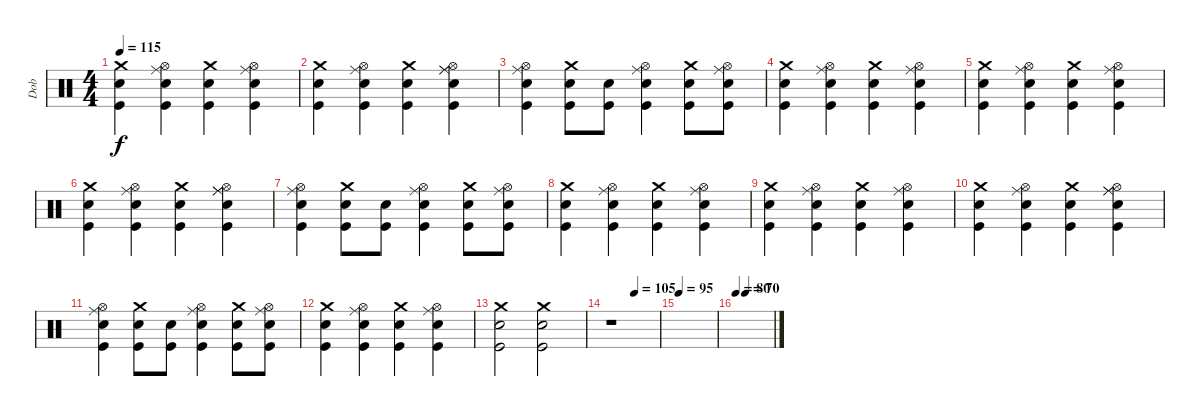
\track ("Dob" "Dob") {instrument percussion}
\staff {score}
\articulation defaults
\ts (4 4)
\tempo 115
\clef neutral
\ks c
("Crash medium (hit)" "Snare (hit) 2" "Kick (hit)").4{dy f} ("Hi-Hat (open)" "Ride (middle)" "Snare (hit) 2" "Kick (hit)").4 ("Crash medium (hit)" "Snare (hit) 2" "Kick (hit)").4 ("Hi-Hat (open)" "Ride (middle)" "Snare (hit) 2" "Kick (hit)").4 |
("Crash medium (hit)" "Snare (hit) 2" "Kick (hit)").4 ("Hi-Hat (open)" "Ride (middle)" "Snare (hit) 2" "Kick (hit)").4 ("Crash medium (hit)" "Snare (hit) 2" "Kick (hit)").4 ("Ride (middle)" "Hi-Hat (open)" "Ride (middle)" "Snare (hit) 2" "Kick (hit)").4 |
("Hi-Hat (open)" "Ride (middle)" "Snare (hit) 2" "Kick (hit)").4 ("Crash medium (hit)" "Snare (hit) 2" "Kick (hit)").8 ("Snare (hit) 2" "Kick (hit)").8 ("Hi-Hat (open)" "Ride (middle)" "Snare (hit) 2" "Kick (hit)").4 ("Crash medium (hit)" "Snare (hit) 2" "Kick (hit)").8 ("Hi-Hat (open)" "Ride (middle)" "Snare (hit) 2" "Kick (hit)").8 |
("Crash medium (hit)" "Snare (hit) 2" "Kick (hit)").4 ("Hi-Hat (open)" "Ride (middle)" "Snare (hit) 2" "Kick (hit)").4 ("Crash medium (hit)" "Snare (hit) 2" "Kick (hit)").4 ("Hi-Hat (open)" "Ride (middle)" "Snare (hit) 2" "Kick (hit)").4 |
("Crash medium (hit)" "Snare (hit) 2" "Kick (hit)").4 ("Hi-Hat (open)" "Ride (middle)" "Snare (hit) 2" "Kick (hit)").4 ("Crash medium (hit)" "Snare (hit) 2" "Kick (hit)").4 ("Hi-Hat (open)" "Ride (middle)" "Snare (hit) 2" "Kick (hit)").4 |
("Crash medium (hit)" "Snare (hit) 2" "Kick (hit)").4 ("Hi-Hat (open)" "Ride (middle)" "Snare (hit) 2" "Kick (hit)").4 ("Crash medium (hit)" "Snare (hit) 2" "Kick (hit)").4 ("Ride (middle)" "Hi-Hat (open)" "Ride (middle)" "Snare (hit) 2" "Kick (hit)").4 |
("Hi-Hat (open)" "Ride (middle)" "Snare (hit) 2" "Kick (hit)").4 ("Crash medium (hit)" "Snare (hit) 2" "Kick (hit)").8 ("Snare (hit) 2" "Kick (hit)").8 ("Hi-Hat (open)" "Ride (middle)" "Snare (hit) 2" "Kick (hit)").4 ("Crash medium (hit)" "Snare (hit) 2" "Kick (hit)").8 ("Hi-Hat (open)" "Ride (middle)" "Snare (hit) 2" "Kick (hit)").8 |
("Crash medium (hit)" "Snare (hit) 2" "Kick (hit)").4 ("Hi-Hat (open)" "Ride (middle)" "Snare (hit) 2" "Kick (hit)").4 ("Crash medium (hit)" "Snare (hit) 2" "Kick (hit)").4 ("Hi-Hat (open)" "Ride (middle)" "Snare (hit) 2" "Kick (hit)").4 |
("Crash medium (hit)" "Snare (hit) 2" "Kick (hit)").4 ("Hi-Hat (open)" "Ride (middle)" "Snare (hit) 2" "Kick (hit)").4 ("Crash medium (hit)" "Snare (hit) 2" "Kick (hit)").4 ("Hi-Hat (open)" "Ride (middle)" "Snare (hit) 2" "Kick (hit)").4 |
("Crash medium (hit)" "Snare (hit) 2" "Kick (hit)").4 ("Hi-Hat (open)" "Ride (middle)" "Snare (hit) 2" "Kick (hit)").4 ("Crash medium (hit)" "Snare (hit) 2" "Kick (hit)").4 ("Ride (middle)" "Hi-Hat (open)" "Ride (middle)" "Snare (hit) 2" "Kick (hit)").4 |
("Hi-Hat (open)" "Ride (middle)" "Snare (hit) 2" "Kick (hit)").4 ("Crash medium (hit)" "Snare (hit) 2" "Kick (hit)").8 ("Snare (hit) 2" "Kick (hit)").8 ("Hi-Hat (open)" "Ride (middle)" "Snare (hit) 2" "Kick (hit)").4 ("Crash medium (hit)" "Snare (hit) 2" "Kick (hit)").8 ("Hi-Hat (open)" "Ride (middle)" "Snare (hit) 2" "Kick (hit)").8 |
("Crash medium (hit)" "Snare (hit) 2" "Kick (hit)").4 ("Hi-Hat (open)" "Ride (middle)" "Snare (hit) 2" "Kick (hit)").4 ("Crash medium (hit)" "Snare (hit) 2" "Kick (hit)").4 ("Hi-Hat (open)" "Ride (middle)" "Snare (hit) 2" "Kick (hit)").4 |
("Crash medium (hit)" "Snare (hit) 2" "Kick (hit)").2 ("Crash medium (hit)" "Snare (hit) 2" "Kick (hit)").2 |
\tempo (105 0.5)
r.1 |
\tempo 95
|
\tempo 80
\tempo (70 0.25)
